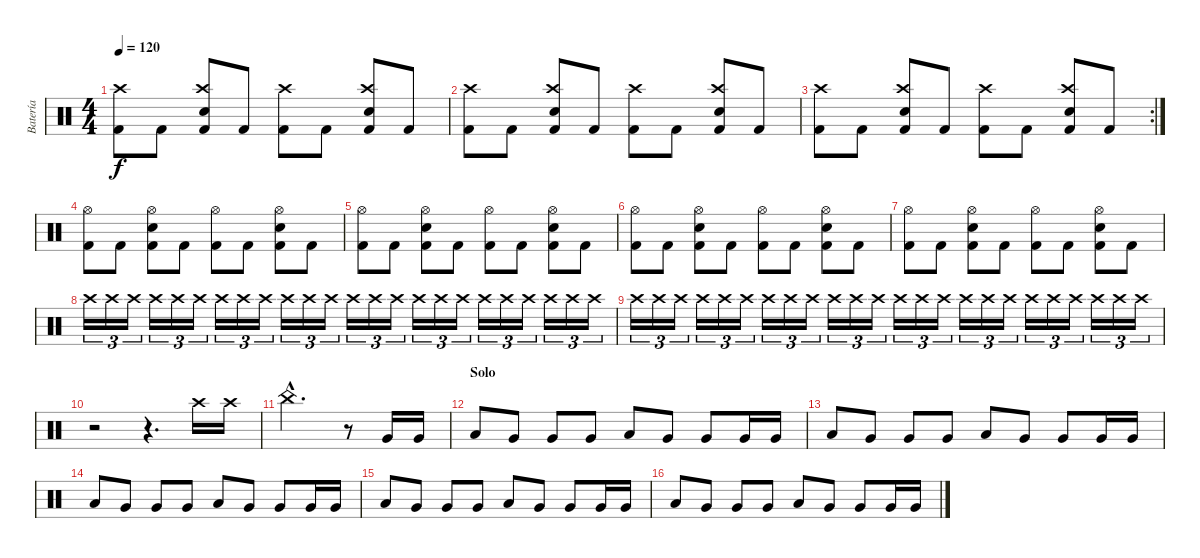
\track ("Batería" "Batería") {instrument percussion}
\staff {score}
\articulation defaults
\ts (4 4)
\tempo 120
\clef neutral
\ks c
("Kick (hit) 2" "Crash high (hit)").8{dy f} "Kick (hit) 2".8 ("Kick (hit) 2" "Electric Snare (hit)" "Crash high (hit)").8 "Kick (hit) 2".8 ("Kick (hit) 2" "Crash high (hit)").8 "Kick (hit) 2".8 ("Kick (hit) 2" "Electric Snare (hit)" "Crash high (hit)").8 "Kick (hit) 2".8 |
("Kick (hit) 2" "Crash high (hit)").8 "Kick (hit) 2".8 ("Kick (hit) 2" "Electric Snare (hit)" "Crash high (hit)").8 "Kick (hit) 2".8 ("Kick (hit) 2" "Crash high (hit)").8 "Kick (hit) 2".8 ("Kick (hit) 2" "Electric Snare (hit)" "Crash high (hit)").8 "Kick (hit) 2".8 |
\rc 2
("Kick (hit) 2" "Crash high (hit)").8 "Kick (hit) 2".8 ("Kick (hit) 2" "Electric Snare (hit)" "Crash high (hit)").8 "Kick (hit) 2".8 ("Kick (hit) 2" "Crash high (hit)").8 "Kick (hit) 2".8 ("Kick (hit) 2" "Electric Snare (hit)" "Crash high (hit)").8 "Kick (hit) 2".8 |
("Kick (hit) 2" "Hi-Hat (open)").8 "Kick (hit) 2".8 ("Kick (hit) 2" "Electric Snare (hit)" "Hi-Hat (open)").8 "Kick (hit) 2".8 ("Kick (hit) 2" "Hi-Hat (open)").8 "Kick (hit) 2".8 ("Kick (hit) 2" "Electric Snare (hit)" "Hi-Hat (open)").8 "Kick (hit) 2".8 |
("Kick (hit) 2" "Hi-Hat (open)").8 "Kick (hit) 2".8 ("Kick (hit) 2" "Electric Snare (hit)" "Hi-Hat (open)").8 "Kick (hit) 2".8 ("Kick (hit) 2" "Hi-Hat (open)").8 "Kick (hit) 2".8 ("Kick (hit) 2" "Electric Snare (hit)" "Hi-Hat (open)").8 "Kick (hit) 2".8 |
("Kick (hit) 2" "Hi-Hat (open)").8 "Kick (hit) 2".8 ("Kick (hit) 2" "Electric Snare (hit)" "Hi-Hat (open)").8 "Kick (hit) 2".8 ("Kick (hit) 2" "Hi-Hat (open)").8 "Kick (hit) 2".8 ("Kick (hit) 2" "Electric Snare (hit)" "Hi-Hat (open)").8 "Kick (hit) 2".8 |
("Kick (hit) 2" "Hi-Hat (open)").8 "Kick (hit) 2".8 ("Kick (hit) 2" "Electric Snare (hit)" "Hi-Hat (open)").8 "Kick (hit) 2".8 ("Kick (hit) 2" "Hi-Hat (open)").8 "Kick (hit) 2".8 ("Kick (hit) 2" "Electric Snare (hit)" "Hi-Hat (open)").8 "Kick (hit) 2".8 |
"Crash high (hit)".16{tu (3 2)} "Crash high (hit)".16{tu (3 2)} "Crash high (hit)".16{tu (3 2)} "Crash high (hit)".16{tu (3 2)} "Crash high (hit)".16{tu (3 2)} "Crash high (hit)".16{tu (3 2)} "Crash high (hit)".16{tu (3 2)} "Crash high (hit)".16{tu (3 2)} "Crash high (hit)".16{tu (3 2)} "Crash high (hit)".16{tu (3 2)} "Crash high (hit)".16{tu (3 2)} "Crash high (hit)".16{tu (3 2)} "Crash high (hit)".16{tu (3 2)} "Crash high (hit)".16{tu (3 2)} "Crash high (hit)".16{tu (3 2)} "Crash high (hit)".16{tu (3 2)} "Crash high (hit)".16{tu (3 2)} "Crash high (hit)".16{tu (3 2)} "Crash high (hit)".16{tu (3 2)} "Crash high (hit)".16{tu (3 2)} "Crash high (hit)".16{tu (3 2)} "Crash high (hit)".16{tu (3 2)} "Crash high (hit)".16{tu (3 2)} "Crash high (hit)".16{tu (3 2)} |
"Crash high (hit)".16{tu (3 2)} "Crash high (hit)".16{tu (3 2)} "Crash high (hit)".16{tu (3 2)} "Crash high (hit)".16{tu (3 2)} "Crash high (hit)".16{tu (3 2)} "Crash high (hit)".16{tu (3 2)} "Crash high (hit)".16{tu (3 2)} "Crash high (hit)".16{tu (3 2)} "Crash high (hit)".16{tu (3 2)} "Crash high (hit)".16{tu (3 2)} "Crash high (hit)".16{tu (3 2)} "Crash high (hit)".16{tu (3 2)} "Crash high (hit)".16{tu (3 2)} "Crash high (hit)".16{tu (3 2)} "Crash high (hit)".16{tu (3 2)} "Crash high (hit)".16{tu (3 2)} "Crash high (hit)".16{tu (3 2)} "Crash high (hit)".16{tu (3 2)} "Crash high (hit)".16{tu (3 2)} "Crash high (hit)".16{tu (3 2)} "Crash high (hit)".16{tu (3 2)} "Crash high (hit)".16{tu (3 2)} "Crash high (hit)".16{tu (3 2)} "Crash high (hit)".16{tu (3 2)} |
r.2 r.4{d} "Crash high (hit)".16 "Crash high (hit)".16 |
"China (hit)"{hac}.2{d} r.8 "Very Low Tom (hit)".16 "Very Low Tom (hit)".16 |
\section ("" "Solo")
"Low Tom (hit)".8 "Very Low Tom (hit)".8 "Very Low Tom (hit)".8 "Very Low Tom (hit)".8 "Low Tom (hit)".8 "Very Low Tom (hit)".8 "Very Low Tom (hit)".8 "Very Low Tom (hit)".16 "Very Low Tom (hit)".16 |
"Low Tom (hit)".8 "Very Low Tom (hit)".8 "Very Low Tom (hit)".8 "Very Low Tom (hit)".8 "Low Tom (hit)".8 "Very Low Tom (hit)".8 "Very Low Tom (hit)".8 "Very Low Tom (hit)".16 "Very Low Tom (hit)".16 |
"Low Tom (hit)".8 "Very Low Tom (hit)".8 "Very Low Tom (hit)".8 "Very Low Tom (hit)".8 "Low Tom (hit)".8 "Very Low Tom (hit)".8 "Very Low Tom (hit)".8 "Very Low Tom (hit)".16 "Very Low Tom (hit)".16 |
"Low Tom (hit)".8 "Very Low Tom (hit)".8 "Very Low Tom (hit)".8 "Very Low Tom (hit)".8 "Low Tom (hit)".8 "Very Low Tom (hit)".8 "Very Low Tom (hit)".8 "Very Low Tom (hit)".16 "Very Low Tom (hit)".16 |
"Low Tom (hit)".8 "Very Low Tom (hit)".8 "Very Low Tom (hit)".8 "Very Low Tom (hit)".8 "Low Tom (hit)".8 "Very Low Tom (hit)".8 "Very Low Tom (hit)".8 "Very Low Tom (hit)".16 "Very Low Tom (hit)".16
